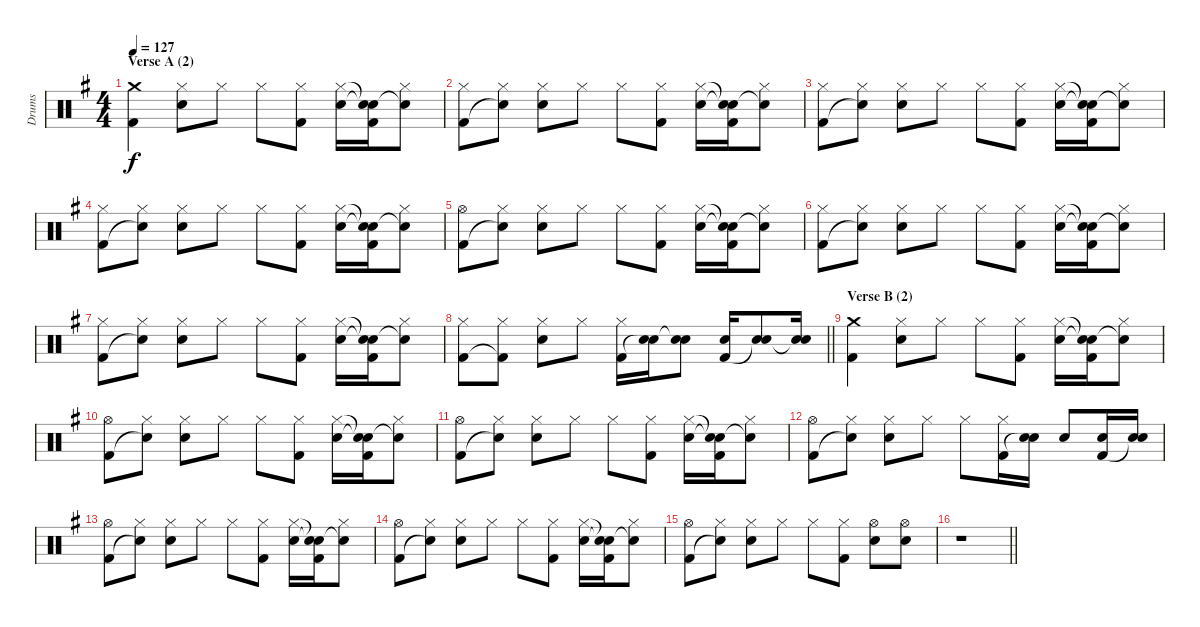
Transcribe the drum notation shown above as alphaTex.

\track ("Drums" "Drums") {instrument percussion}
\staff {score}
\articulation defaults
\ts (4 4)
\section ("" "Verse A (2)")
\tempo 127
\clef neutral
\ks eminor
("Crash medium (hit)" "Kick (hit) 2").4{dy f} ("Hi-Hat (closed)" "Electric Snare (hit)").8 "Hi-Hat (closed)".8 "Hi-Hat (closed)".8 ("Hi-Hat (closed)" "Kick (hit) 2").8 ("Hi-Hat (closed)" "Electric Snare (hit)").16 ("Snare (hit)"{t} "Snare (hit)"{t} "Kick (hit) 2").16 ("Hi-Hat (closed)" "Snare (hit)"{t}).8 |
("Hi-Hat (closed)" "Kick (hit) 2").8 ("Hi-Hat (closed)" "Snare (hit)"{t}).8 ("Hi-Hat (closed)" "Electric Snare (hit)").8 "Hi-Hat (closed)".8 "Hi-Hat (closed)".8 ("Hi-Hat (closed)" "Kick (hit) 2").8 ("Hi-Hat (closed)" "Electric Snare (hit)").16 ("Snare (hit)"{t} "Snare (hit)"{t} "Kick (hit) 2").16 ("Hi-Hat (closed)" "Snare (hit)"{t}).8 |
("Hi-Hat (closed)" "Kick (hit) 2").8 ("Hi-Hat (closed)" "Snare (hit)"{t}).8 ("Hi-Hat (closed)" "Electric Snare (hit)").8 "Hi-Hat (closed)".8 "Hi-Hat (closed)".8 ("Hi-Hat (closed)" "Kick (hit) 2").8 ("Hi-Hat (closed)" "Electric Snare (hit)").16 ("Snare (hit)"{t} "Snare (hit)"{t} "Kick (hit) 2").16 ("Hi-Hat (closed)" "Snare (hit)"{t}).8 |
("Hi-Hat (closed)" "Kick (hit) 2").8 ("Hi-Hat (closed)" "Snare (hit)"{t}).8 ("Hi-Hat (closed)" "Electric Snare (hit)").8 "Hi-Hat (closed)".8 "Hi-Hat (closed)".8 ("Hi-Hat (closed)" "Kick (hit) 2").8 ("Hi-Hat (closed)" "Electric Snare (hit)").16 ("Snare (hit)"{t} "Snare (hit)"{t} "Kick (hit) 2").16 ("Hi-Hat (closed)" "Snare (hit)"{t}).8 |
("Hi-Hat (open)" "Kick (hit) 2").8 ("Hi-Hat (closed)" "Snare (hit)"{t}).8 ("Hi-Hat (closed)" "Electric Snare (hit)").8 "Hi-Hat (closed)".8 "Hi-Hat (closed)".8 ("Hi-Hat (closed)" "Kick (hit) 2").8 ("Hi-Hat (closed)" "Electric Snare (hit)").16 ("Snare (hit)"{t} "Snare (hit)"{t} "Kick (hit) 2").16 ("Hi-Hat (closed)" "Snare (hit)"{t}).8 |
("Hi-Hat (closed)" "Kick (hit) 2").8 ("Hi-Hat (closed)" "Snare (hit)"{t}).8 ("Hi-Hat (closed)" "Electric Snare (hit)").8 "Hi-Hat (closed)".8 "Hi-Hat (closed)".8 ("Hi-Hat (closed)" "Kick (hit) 2").8 ("Hi-Hat (closed)" "Electric Snare (hit)").16 ("Snare (hit)"{t} "Snare (hit)"{t} "Kick (hit) 2").16 ("Hi-Hat (closed)" "Snare (hit)"{t}).8 |
("Hi-Hat (closed)" "Kick (hit) 2").8 ("Hi-Hat (closed)" "Snare (hit)"{t}).8 ("Hi-Hat (closed)" "Electric Snare (hit)").8 "Hi-Hat (closed)".8 "Hi-Hat (closed)".8 ("Hi-Hat (closed)" "Kick (hit) 2").8 ("Hi-Hat (closed)" "Electric Snare (hit)").16 ("Snare (hit)"{t} "Snare (hit)"{t} "Kick (hit) 2").16 ("Hi-Hat (closed)" "Snare (hit)"{t}).8 |
\barLineRight lightlight
("Hi-Hat (closed)" "Kick (hit) 2").8 ("Hi-Hat (closed)" "Kick (hit) 2"{t}).8 ("Hi-Hat (closed)" "Electric Snare (hit)").8 "Hi-Hat (closed)".8 ("Hi-Hat (closed)" "Kick (hit) 2").16 ("Electric Snare (hit)" "Snare (hit)"{t}).16 ("Electric Snare (hit)" "Snare (hit)"{t}).8 ("Electric Snare (hit)" "Kick (hit) 2").16 ("Electric Snare (hit)" "Snare (hit)"{t}).8 ("Electric Snare (hit)" "Snare (hit)"{t}).16 |
\section ("" "Verse B (2)")
("Crash medium (hit)" "Kick (hit) 2").4 ("Hi-Hat (closed)" "Electric Snare (hit)").8 "Hi-Hat (closed)".8 "Hi-Hat (closed)".8 ("Hi-Hat (closed)" "Kick (hit) 2").8 ("Hi-Hat (closed)" "Electric Snare (hit)").16 ("Snare (hit)"{t} "Snare (hit)"{t} "Kick (hit) 2").16 ("Hi-Hat (closed)" "Snare (hit)"{t}).8 |
("Hi-Hat (open)" "Kick (hit) 2").8 ("Hi-Hat (closed)" "Snare (hit)"{t}).8 ("Hi-Hat (closed)" "Electric Snare (hit)").8 "Hi-Hat (closed)".8 "Hi-Hat (closed)".8 ("Hi-Hat (closed)" "Kick (hit) 2").8 ("Hi-Hat (closed)" "Electric Snare (hit)").16 ("Snare (hit)"{t} "Snare (hit)"{t} "Kick (hit) 2").16 ("Hi-Hat (closed)" "Snare (hit)"{t}).8 |
("Hi-Hat (open)" "Kick (hit) 2").8 ("Hi-Hat (closed)" "Snare (hit)"{t}).8 ("Hi-Hat (closed)" "Electric Snare (hit)").8 "Hi-Hat (closed)".8 "Hi-Hat (closed)".8 ("Hi-Hat (closed)" "Kick (hit) 2").8 ("Hi-Hat (closed)" "Electric Snare (hit)").16 ("Snare (hit)"{t} "Snare (hit)"{t} "Kick (hit) 2").16 ("Hi-Hat (closed)" "Snare (hit)"{t}).8 |
("Hi-Hat (open)" "Kick (hit) 2").8 ("Hi-Hat (closed)" "Snare (hit)"{t}).8 ("Hi-Hat (closed)" "Electric Snare (hit)").8 "Hi-Hat (closed)".8 "Hi-Hat (closed)".8 ("Hi-Hat (closed)" "Kick (hit) 2").16 ("Electric Snare (hit)" "Snare (hit)"{t}).16 "Electric Snare (hit)".8 ("Electric Snare (hit)" "Kick (hit) 2").16 ("Electric Snare (hit)" "Snare (hit)"{t}).16 |
("Hi-Hat (open)" "Kick (hit) 2").8 ("Hi-Hat (closed)" "Snare (hit)"{t}).8 ("Hi-Hat (closed)" "Electric Snare (hit)").8 "Hi-Hat (closed)".8 "Hi-Hat (closed)".8 ("Hi-Hat (closed)" "Kick (hit) 2").8 ("Hi-Hat (closed)" "Electric Snare (hit)").16 ("Snare (hit)"{t} "Snare (hit)"{t} "Kick (hit) 2").16 ("Hi-Hat (closed)" "Snare (hit)"{t}).8 |
("Hi-Hat (open)" "Kick (hit) 2").8 ("Hi-Hat (closed)" "Snare (hit)"{t}).8 ("Hi-Hat (closed)" "Electric Snare (hit)").8 "Hi-Hat (closed)".8 "Hi-Hat (closed)".8 ("Hi-Hat (closed)" "Kick (hit) 2").8 ("Hi-Hat (closed)" "Electric Snare (hit)").16 ("Snare (hit)"{t} "Snare (hit)"{t} "Kick (hit) 2").16 ("Hi-Hat (closed)" "Snare (hit)"{t}).8 |
("Hi-Hat (open)" "Kick (hit) 2").8 ("Hi-Hat (closed)" "Snare (hit)"{t}).8 ("Hi-Hat (closed)" "Electric Snare (hit)").8 "Hi-Hat (closed)".8 "Hi-Hat (closed)".8 ("Hi-Hat (closed)" "Kick (hit) 2").8 ("Hi-Hat (open)" "Electric Snare (hit)").8 ("Hi-Hat (open)" "Electric Snare (hit)").8 |
\barLineRight lightlight
r.1
